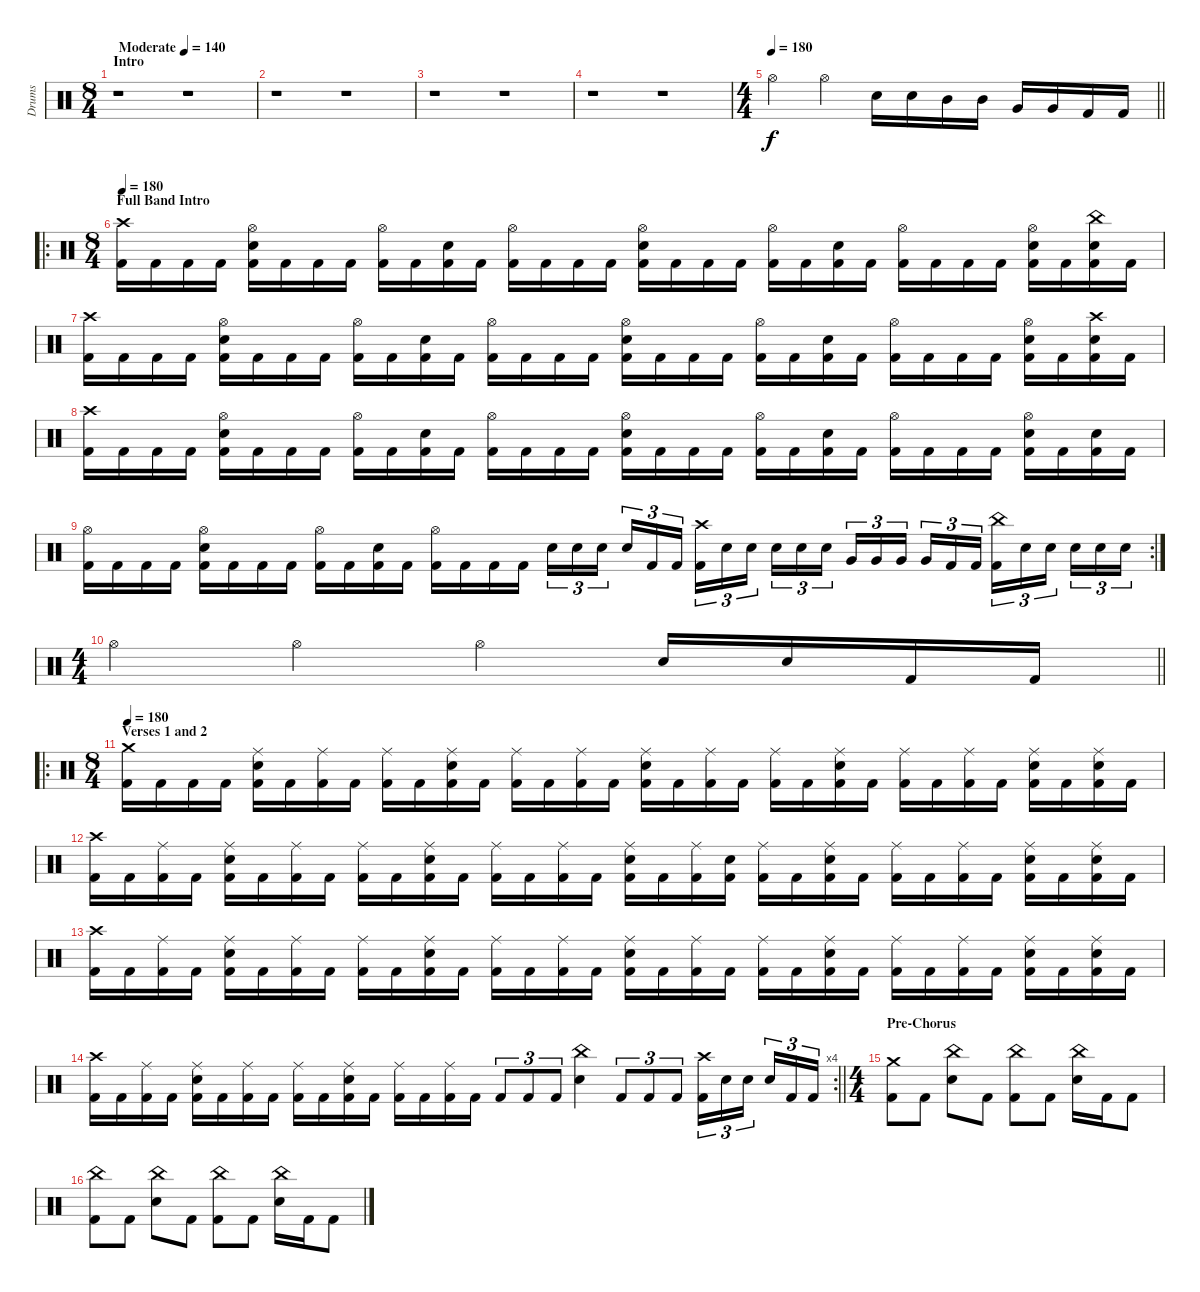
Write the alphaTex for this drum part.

\track ("Drums" "Drums") {instrument percussion}
\staff {score}
\articulation defaults
\ts (8 4)
\section ("" "Intro")
\tempo (140 "Moderate")
\clef neutral
\ks c
r.1{dy f} r.1 |
r.1 r.1 |
r.1 r.1 |
r.1 r.1 |
\ts (4 4)
\tempo 180
\barLineRight lightlight "Hi-Hat (open)".4 "Hi-Hat (open)".4 "Snare (hit) 2".16 "Snare (hit) 2".16 "Mid Tom (hit)".16 "Mid Tom (hit)".16 "Very Low Tom (hit)".16 "Very Low Tom (hit)".16 "Kick (hit) 2".16 "Kick (hit) 2".16
|
\ro
\ts (8 4)
\section ("" "Full Band Intro")
\tempo 180
("Crash high (hit)" "Kick (hit) 2").16 "Kick (hit) 2".16 "Kick (hit) 2".16 "Kick (hit) 2".16 ("Snare (hit) 2" "Hi-Hat (open)" "Kick (hit) 2").16 "Kick (hit) 2".16 "Kick (hit) 2".16 "Kick (hit) 2".16 ("Hi-Hat (open)" "Kick (hit) 2").16 "Kick (hit) 2".16 ("Snare (hit) 2" "Kick (hit) 2").16 "Kick (hit) 2".16 ("Hi-Hat (open)" "Kick (hit) 2").16 "Kick (hit) 2".16 "Kick (hit) 2".16 "Kick (hit) 2".16 ("Snare (hit) 2" "Hi-Hat (open)" "Kick (hit) 2").16 "Kick (hit) 2".16 "Kick (hit) 2".16 "Kick (hit) 2".16 ("Hi-Hat (open)" "Kick (hit) 2").16 "Kick (hit) 2".16 ("Snare (hit) 2" "Kick (hit) 2").16 "Kick (hit) 2".16 ("Hi-Hat (open)" "Kick (hit) 2").16 "Kick (hit) 2".16 "Kick (hit) 2".16 "Kick (hit) 2".16 ("Snare (hit) 2" "Hi-Hat (open)" "Kick (hit) 2").16 "Kick (hit) 2".16 ("Snare (hit) 2" "China (hit)" "Kick (hit) 2").16 "Kick (hit) 2".16 |
("Crash high (hit)" "Kick (hit) 2").16 "Kick (hit) 2".16 "Kick (hit) 2".16 "Kick (hit) 2".16 ("Snare (hit) 2" "Hi-Hat (open)" "Kick (hit) 2").16 "Kick (hit) 2".16 "Kick (hit) 2".16 "Kick (hit) 2".16 ("Hi-Hat (open)" "Kick (hit) 2").16 "Kick (hit) 2".16 ("Snare (hit) 2" "Kick (hit) 2").16 "Kick (hit) 2".16 ("Hi-Hat (open)" "Kick (hit) 2").16 "Kick (hit) 2".16 "Kick (hit) 2".16 "Kick (hit) 2".16 ("Snare (hit) 2" "Hi-Hat (open)" "Kick (hit) 2").16 "Kick (hit) 2".16 "Kick (hit) 2".16 "Kick (hit) 2".16 ("Hi-Hat (open)" "Kick (hit) 2").16 "Kick (hit) 2".16 ("Snare (hit) 2" "Kick (hit) 2").16 "Kick (hit) 2".16 ("Hi-Hat (open)" "Kick (hit) 2").16 "Kick (hit) 2".16 "Kick (hit) 2".16 "Kick (hit) 2".16 ("Snare (hit) 2" "Hi-Hat (open)" "Kick (hit) 2").16 "Kick (hit) 2".16 ("Snare (hit) 2" "Crash high (hit)" "Kick (hit) 2").16 "Kick (hit) 2".16 |
("Crash high (hit)" "Kick (hit) 2").16 "Kick (hit) 2".16 "Kick (hit) 2".16 "Kick (hit) 2".16 ("Snare (hit) 2" "Hi-Hat (open)" "Kick (hit) 2").16 "Kick (hit) 2".16 "Kick (hit) 2".16 "Kick (hit) 2".16 ("Hi-Hat (open)" "Kick (hit) 2").16 "Kick (hit) 2".16 ("Snare (hit) 2" "Kick (hit) 2").16 "Kick (hit) 2".16 ("Hi-Hat (open)" "Kick (hit) 2").16 "Kick (hit) 2".16 "Kick (hit) 2".16 "Kick (hit) 2".16 ("Hi-Hat (open)" "Snare (hit) 2" "Kick (hit) 2").16 "Kick (hit) 2".16 "Kick (hit) 2".16 "Kick (hit) 2".16 ("Hi-Hat (open)" "Kick (hit) 2").16 "Kick (hit) 2".16 ("Snare (hit) 2" "Kick (hit) 2").16 "Kick (hit) 2".16 ("Hi-Hat (open)" "Kick (hit) 2").16 "Kick (hit) 2".16 "Kick (hit) 2".16 "Kick (hit) 2".16 ("Hi-Hat (open)" "Snare (hit) 2" "Kick (hit) 2").16 "Kick (hit) 2".16 ("Snare (hit) 2" "Kick (hit) 2").16 "Kick (hit) 2".16 |
\rc 2
("Hi-Hat (open)" "Kick (hit) 2").16 "Kick (hit) 2".16 "Kick (hit) 2".16 "Kick (hit) 2".16 ("Hi-Hat (open)" "Snare (hit) 2" "Kick (hit) 2").16 "Kick (hit) 2".16 "Kick (hit) 2".16 "Kick (hit) 2".16 ("Hi-Hat (open)" "Kick (hit) 2").16 "Kick (hit) 2".16 ("Snare (hit) 2" "Kick (hit) 2").16 "Kick (hit) 2".16 ("Hi-Hat (open)" "Kick (hit) 2").16 "Kick (hit) 2".16 "Kick (hit) 2".16 "Kick (hit) 2".16 "Snare (hit) 2".16{tu (3 2)} "Snare (hit) 2".16{tu (3 2)} "Snare (hit) 2".16{tu (3 2) beam splitsecondary} "Snare (hit) 2".16{tu (3 2)} "Kick (hit) 2".16{tu (3 2)} "Kick (hit) 2".16{tu (3 2)} ("Kick (hit) 2" "Crash high (hit)").16{tu (3 2)} "Snare (hit) 2".16{tu (3 2)} "Snare (hit) 2".16{tu (3 2) beam splitsecondary} "Snare (hit) 2".16{tu (3 2)} "Snare (hit) 2".16{tu (3 2)} "Snare (hit) 2".16{tu (3 2)} "Very Low Tom (hit)".16{tu (3 2)} "Very Low Tom (hit)".16{tu (3 2)} "Very Low Tom (hit)".16{tu (3 2) beam splitsecondary} "Very Low Tom (hit)".16{tu (3 2)} "Kick (hit) 2".16{tu (3 2)} "Kick (hit) 2".16{tu (3 2)} ("China (hit)" "Kick (hit) 2").16{tu (3 2)} "Snare (hit) 2".16{tu (3 2)} "Snare (hit) 2".16{tu (3 2) beam splitsecondary} "Snare (hit) 2".16{tu (3 2)} "Snare (hit) 2".16{tu (3 2)} "Snare (hit) 2".16{tu (3 2)} |
\ts (4 4)
\barLineRight lightlight "Hi-Hat (open)".4 "Hi-Hat (open)".4 "Hi-Hat (open)".4 "Snare (hit) 2".16 "Snare (hit) 2".16 "Kick (hit) 2".16 "Kick (hit) 2".16
|
\ro
\ts (8 4)
\section ("" "Verses 1 and 2")
\tempo 180
("Crash medium (hit)" "Kick (hit) 2").16 "Kick (hit) 2".16 "Kick (hit) 2".16 "Kick (hit) 2".16 ("Ride (middle)" "Snare (hit) 2" "Kick (hit) 2").16 "Kick (hit) 2".16 ("Ride (middle)" "Kick (hit) 2").16 "Kick (hit) 2".16 ("Ride (middle)" "Kick (hit) 2").16 "Kick (hit) 2".16 ("Ride (middle)" "Snare (hit) 2" "Kick (hit) 2").16 "Kick (hit) 2".16 ("Ride (middle)" "Kick (hit) 2").16 "Kick (hit) 2".16 ("Ride (middle)" "Kick (hit) 2").16 "Kick (hit) 2".16 ("Ride (middle)" "Snare (hit) 2" "Kick (hit) 2").16 "Kick (hit) 2".16 ("Ride (middle)" "Kick (hit) 2").16 "Kick (hit) 2".16 ("Ride (middle)" "Kick (hit) 2").16 "Kick (hit) 2".16 ("Ride (middle)" "Snare (hit) 2" "Kick (hit) 2").16 "Kick (hit) 2".16 ("Ride (middle)" "Kick (hit) 2").16 "Kick (hit) 2".16 ("Ride (middle)" "Kick (hit) 2").16 "Kick (hit) 2".16 ("Ride (middle)" "Snare (hit) 2" "Kick (hit) 2").16 "Kick (hit) 2".16 ("Ride (middle)" "Snare (hit) 2" "Kick (hit) 2").16 "Kick (hit) 2".16 |
("Crash high (hit)" "Kick (hit) 2").16 "Kick (hit) 2".16 ("Ride (middle)" "Kick (hit) 2").16 "Kick (hit) 2".16 ("Ride (middle)" "Snare (hit) 2" "Kick (hit) 2").16 "Kick (hit) 2".16 ("Ride (middle)" "Kick (hit) 2").16 "Kick (hit) 2".16 ("Ride (middle)" "Kick (hit) 2").16 "Kick (hit) 2".16 ("Ride (middle)" "Snare (hit) 2" "Kick (hit) 2").16 "Kick (hit) 2".16 ("Ride (middle)" "Kick (hit) 2").16 "Kick (hit) 2".16 ("Ride (middle)" "Kick (hit) 2").16 "Kick (hit) 2".16 ("Ride (middle)" "Snare (hit) 2" "Kick (hit) 2").16 "Kick (hit) 2".16 ("Ride (middle)" "Kick (hit) 2").16 ("Snare (hit)" "Kick (hit) 2").16 ("Ride (middle)" "Kick (hit) 2").16 "Kick (hit) 2".16 ("Ride (middle)" "Snare (hit) 2" "Kick (hit) 2").16 "Kick (hit) 2".16 ("Ride (middle)" "Kick (hit) 2").16 "Kick (hit) 2".16 ("Ride (middle)" "Kick (hit) 2").16 "Kick (hit) 2".16 ("Ride (middle)" "Snare (hit) 2" "Kick (hit) 2").16 "Kick (hit) 2".16 ("Ride (middle)" "Snare (hit) 2" "Kick (hit) 2").16 "Kick (hit) 2".16 |
("Crash high (hit)" "Kick (hit) 2").16 "Kick (hit) 2".16 ("Ride (middle)" "Kick (hit) 2").16 "Kick (hit) 2".16 ("Ride (middle)" "Snare (hit) 2" "Kick (hit) 2").16 "Kick (hit) 2".16 ("Ride (middle)" "Kick (hit) 2").16 "Kick (hit) 2".16 ("Ride (middle)" "Kick (hit) 2").16 "Kick (hit) 2".16 ("Ride (middle)" "Snare (hit) 2" "Kick (hit) 2").16 "Kick (hit) 2".16 ("Ride (middle)" "Kick (hit) 2").16 "Kick (hit) 2".16 ("Ride (middle)" "Kick (hit) 2").16 "Kick (hit) 2".16 ("Ride (middle)" "Snare (hit) 2" "Kick (hit) 2").16 "Kick (hit) 2".16 ("Ride (middle)" "Kick (hit) 2").16 "Kick (hit) 2".16 ("Ride (middle)" "Kick (hit) 2").16 "Kick (hit) 2".16 ("Ride (middle)" "Snare (hit) 2" "Kick (hit) 2").16 "Kick (hit) 2".16 ("Ride (middle)" "Kick (hit) 2").16 "Kick (hit) 2".16 ("Ride (middle)" "Kick (hit) 2").16 "Kick (hit) 2".16 ("Ride (middle)" "Snare (hit) 2" "Kick (hit) 2").16 "Kick (hit) 2".16 ("Ride (middle)" "Snare (hit) 2" "Kick (hit) 2").16 "Kick (hit) 2".16 |
\rc 4
\barLineRight lightlight
("Crash high (hit)" "Kick (hit) 2").16 "Kick (hit) 2".16 ("Ride (middle)" "Kick (hit) 2").16 "Kick (hit) 2".16 ("Ride (middle)" "Snare (hit) 2" "Kick (hit) 2").16 "Kick (hit) 2".16 ("Ride (middle)" "Kick (hit) 2").16 "Kick (hit) 2".16 ("Ride (middle)" "Kick (hit) 2").16 "Kick (hit) 2".16 ("Ride (middle)" "Snare (hit) 2" "Kick (hit) 2").16 "Kick (hit) 2".16 ("Ride (middle)" "Kick (hit) 2").16 "Kick (hit) 2".16 ("Ride (middle)" "Kick (hit) 2").16 "Kick (hit) 2".16 "Kick (hit) 2".8{tu (3 2)} "Kick (hit) 2".8{tu (3 2)} "Kick (hit) 2".8{tu (3 2)} ("China (hit)" "Snare (hit) 2").4 "Kick (hit) 2".8{tu (3 2)} "Kick (hit) 2".8{tu (3 2)} "Kick (hit) 2".8{tu (3 2)} ("Crash high (hit)" "Kick (hit) 2").16{tu (3 2)} "Snare (hit) 2".16{tu (3 2)} "Snare (hit) 2".16{tu (3 2) beam splitsecondary} "Snare (hit) 2".16{tu (3 2)} "Kick (hit) 2".16{tu (3 2)} "Kick (hit) 2".16{tu (3 2)} |
\ts (4 4)
\section ("" "Pre-Chorus")
("Crash medium (hit)" "Kick (hit) 2").8 "Kick (hit) 2".8 ("China (hit)" "Snare (hit) 2").8 "Kick (hit) 2".8 ("China (hit)" "Kick (hit) 2").8 "Kick (hit) 2".8 ("China (hit)" "Snare (hit) 2").16 "Kick (hit) 2".16 "Kick (hit) 2".8 |
("China (hit)" "Kick (hit) 2").8 "Kick (hit) 2".8 ("China (hit)" "Snare (hit) 2").8 "Kick (hit) 2".8 ("China (hit)" "Kick (hit) 2").8 "Kick (hit) 2".8 ("China (hit)" "Snare (hit) 2").16 "Kick (hit) 2".16 "Kick (hit) 2".8
